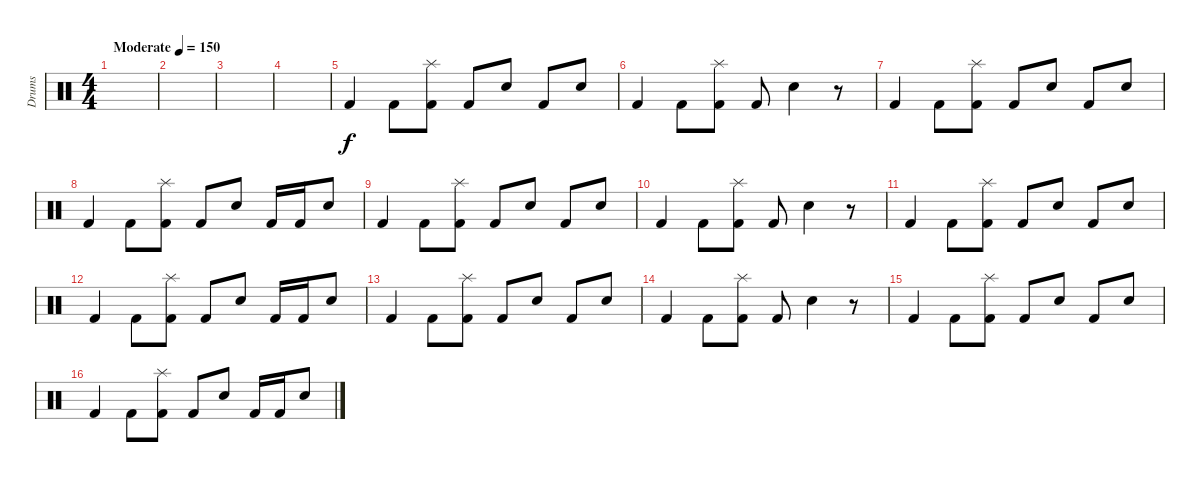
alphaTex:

\track ("Drums" "Drums") {instrument percussion}
\staff {score}
\articulation defaults
\ts (4 4)
\tempo (150 "Moderate")
\clef neutral
\ks c
|
|
|
|
"Kick (hit) 2".4 "Kick (hit) 2".8 ("Splash (hit)" "Kick (hit) 2").8 "Kick (hit) 2".8 "Snare (hit) 2".8 "Kick (hit) 2".8 "Snare (hit) 2".8 |
"Kick (hit) 2".4 "Kick (hit) 2".8 ("Splash (hit)" "Kick (hit) 2").8 "Kick (hit) 2".8 "Snare (hit) 2".4 r.8 |
"Kick (hit) 2".4 "Kick (hit) 2".8 ("Splash (hit)" "Kick (hit) 2").8 "Kick (hit) 2".8 "Snare (hit) 2".8 "Kick (hit) 2".8 "Snare (hit) 2".8 |
"Kick (hit) 2".4 "Kick (hit) 2".8 ("Splash (hit)" "Kick (hit) 2").8 "Kick (hit) 2".8 "Snare (hit) 2".8 "Kick (hit) 2".16 "Kick (hit) 2".16 "Snare (hit) 2".8 |
"Kick (hit) 2".4 "Kick (hit) 2".8 ("Splash (hit)" "Kick (hit) 2").8 "Kick (hit) 2".8 "Snare (hit) 2".8 "Kick (hit) 2".8 "Snare (hit) 2".8 |
"Kick (hit) 2".4 "Kick (hit) 2".8 ("Splash (hit)" "Kick (hit) 2").8 "Kick (hit) 2".8 "Snare (hit) 2".4 r.8 |
"Kick (hit) 2".4 "Kick (hit) 2".8 ("Splash (hit)" "Kick (hit) 2").8 "Kick (hit) 2".8 "Snare (hit) 2".8 "Kick (hit) 2".8 "Snare (hit) 2".8 |
"Kick (hit) 2".4 "Kick (hit) 2".8 ("Splash (hit)" "Kick (hit) 2").8 "Kick (hit) 2".8 "Snare (hit) 2".8 "Kick (hit) 2".16 "Kick (hit) 2".16 "Snare (hit) 2".8 |
"Kick (hit) 2".4 "Kick (hit) 2".8 ("Splash (hit)" "Kick (hit) 2").8 "Kick (hit) 2".8 "Snare (hit) 2".8 "Kick (hit) 2".8 "Snare (hit) 2".8 |
"Kick (hit) 2".4 "Kick (hit) 2".8 ("Splash (hit)" "Kick (hit) 2").8 "Kick (hit) 2".8 "Snare (hit) 2".4 r.8 |
"Kick (hit) 2".4 "Kick (hit) 2".8 ("Splash (hit)" "Kick (hit) 2").8 "Kick (hit) 2".8 "Snare (hit) 2".8 "Kick (hit) 2".8 "Snare (hit) 2".8 |
"Kick (hit) 2".4 "Kick (hit) 2".8 ("Splash (hit)" "Kick (hit) 2").8 "Kick (hit) 2".8 "Snare (hit) 2".8 "Kick (hit) 2".16 "Kick (hit) 2".16 "Snare (hit) 2".8
